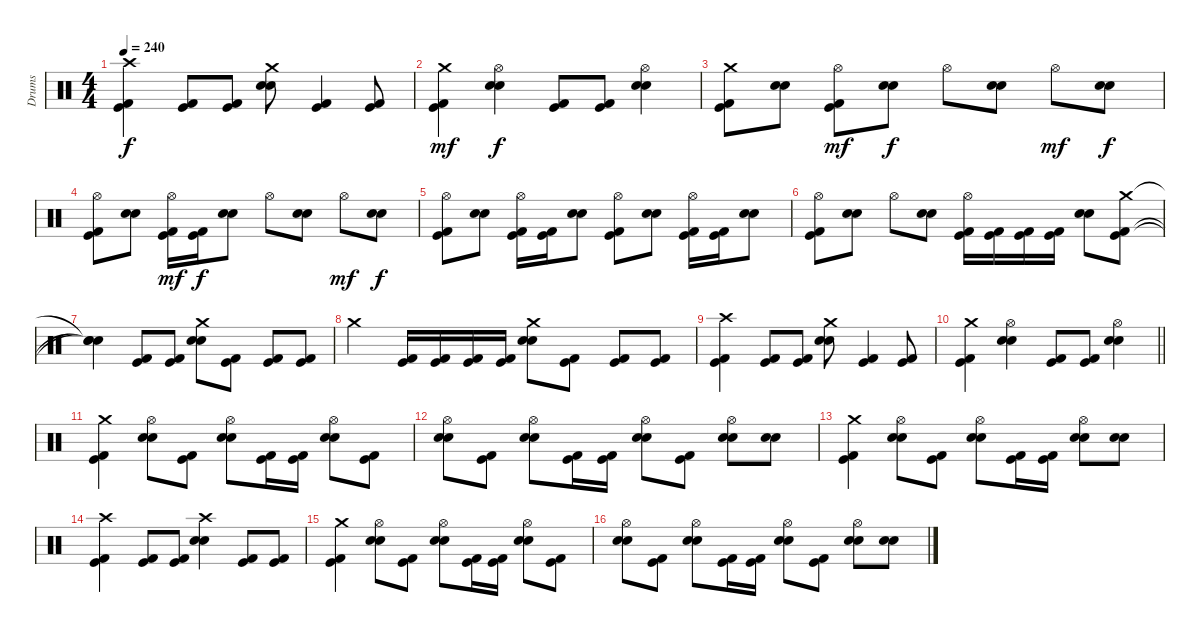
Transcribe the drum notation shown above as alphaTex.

\track ("Drums" "Drums") {instrument percussion bank 10}
\staff {score}
\articulation defaults
\ts (4 4)
\tempo 240
\clef neutral
\ks c
("Crash high (hit)" "Kick (hit) 2" "Kick (hit)").4{dy f} ("Kick (hit) 2" "Kick (hit)").8 ("Kick (hit) 2" "Kick (hit)").8 ("Crash medium (hit)" "Electric Snare (hit)" "Electric Snare (hit)").8 ("Kick (hit) 2" "Kick (hit)").4 ("Kick (hit) 2" "Kick (hit)").8 |
("Crash medium (hit)" "Kick (hit) 2" "Kick (hit)").4{dy mf} ("Hi-Hat (open)" "Electric Snare (hit)" "Electric Snare (hit)").4{dy f} ("Kick (hit) 2" "Kick (hit)").8 ("Kick (hit) 2" "Kick (hit)").8 ("Hi-Hat (open)" "Electric Snare (hit)" "Electric Snare (hit)").4 |
("Crash medium (hit)" "Kick (hit) 2" "Kick (hit)").8 ("Electric Snare (hit)" "Electric Snare (hit)").8 ("Hi-Hat (open)" "Kick (hit) 2" "Kick (hit)").8{dy mf} ("Electric Snare (hit)" "Electric Snare (hit)").8{dy f} "Hi-Hat (open)".8 ("Electric Snare (hit)" "Electric Snare (hit)").8 "Hi-Hat (open)".8{dy mf} ("Electric Snare (hit)" "Electric Snare (hit)").8{dy f} |
("Hi-Hat (open)" "Kick (hit) 2" "Kick (hit)").8 ("Electric Snare (hit)" "Electric Snare (hit)").8 ("Hi-Hat (open)" "Kick (hit) 2" "Kick (hit)").16{dy mf} ("Kick (hit) 2" "Kick (hit)").16{dy f} ("Electric Snare (hit)" "Electric Snare (hit)").8 "Hi-Hat (open)".8 ("Electric Snare (hit)" "Electric Snare (hit)").8 "Hi-Hat (open)".8{dy mf} ("Electric Snare (hit)" "Electric Snare (hit)").8{dy f} |
("Hi-Hat (open)" "Kick (hit) 2" "Kick (hit)").8 ("Electric Snare (hit)" "Electric Snare (hit)").8 ("Hi-Hat (open)" "Kick (hit) 2" "Kick (hit)").16 ("Kick (hit) 2" "Kick (hit)").16 ("Electric Snare (hit)" "Electric Snare (hit)").8 ("Hi-Hat (open)" "Kick (hit) 2" "Kick (hit)").8 ("Electric Snare (hit)" "Electric Snare (hit)").8 ("Hi-Hat (open)" "Kick (hit) 2" "Kick (hit)").16 ("Kick (hit) 2" "Kick (hit)").16 ("Electric Snare (hit)" "Electric Snare (hit)").8 |
("Hi-Hat (open)" "Kick (hit) 2" "Kick (hit)").8 ("Electric Snare (hit)" "Electric Snare (hit)").8 "Hi-Hat (open)".8 ("Electric Snare (hit)" "Electric Snare (hit)").8 ("Hi-Hat (open)" "Kick (hit) 2" "Kick (hit)").16 ("Kick (hit) 2" "Kick (hit)").16 ("Kick (hit) 2" "Kick (hit)").16 ("Kick (hit) 2" "Kick (hit)").16 ("Electric Snare (hit)" "Electric Snare (hit)").8 ("Crash medium (hit)" "Kick (hit) 2" "Kick (hit)").8 |
("Snare (hit)"{t} "Snare (hit)"{t} "Snare (hit)"{t}).4 ("Kick (hit) 2" "Kick (hit)").8 ("Kick (hit) 2" "Kick (hit)").8 ("Crash medium (hit)" "Electric Snare (hit)" "Electric Snare (hit)").8 ("Kick (hit) 2" "Kick (hit)").8 ("Kick (hit) 2" "Kick (hit)").8 ("Kick (hit) 2" "Kick (hit)").8 |
"Crash medium (hit)".4 ("Kick (hit) 2" "Kick (hit)").16 ("Kick (hit) 2" "Kick (hit)").16 ("Kick (hit) 2" "Kick (hit)").16 ("Kick (hit) 2" "Kick (hit)").16 ("Crash medium (hit)" "Electric Snare (hit)" "Electric Snare (hit)").8 ("Kick (hit) 2" "Kick (hit)").8 ("Kick (hit) 2" "Kick (hit)").8 ("Kick (hit) 2" "Kick (hit)").8 |
("Crash high (hit)" "Kick (hit) 2" "Kick (hit)").4 ("Kick (hit) 2" "Kick (hit)").8 ("Kick (hit) 2" "Kick (hit)").8 ("Crash medium (hit)" "Electric Snare (hit)" "Electric Snare (hit)").8 ("Kick (hit) 2" "Kick (hit)").4 ("Kick (hit) 2" "Kick (hit)").8 |
\barLineRight lightlight
("Crash medium (hit)" "Kick (hit) 2" "Kick (hit)").4 ("Hi-Hat (open)" "Electric Snare (hit)" "Electric Snare (hit)").4 ("Kick (hit) 2" "Kick (hit)").8 ("Kick (hit) 2" "Kick (hit)").8 ("Hi-Hat (open)" "Electric Snare (hit)" "Electric Snare (hit)").4 |
("Crash medium (hit)" "Kick (hit) 2" "Kick (hit)").4 ("Hi-Hat (open)" "Electric Snare (hit)" "Electric Snare (hit)").8 ("Kick (hit) 2" "Kick (hit)").8 ("Hi-Hat (open)" "Electric Snare (hit)" "Electric Snare (hit)").8 ("Kick (hit) 2" "Kick (hit)").16 ("Kick (hit) 2" "Kick (hit)").16 ("Hi-Hat (open)" "Electric Snare (hit)" "Electric Snare (hit)").8 ("Kick (hit) 2" "Kick (hit)").8 |
("Hi-Hat (open)" "Electric Snare (hit)" "Electric Snare (hit)").8 ("Kick (hit) 2" "Kick (hit)").8 ("Hi-Hat (open)" "Electric Snare (hit)" "Electric Snare (hit)").8 ("Kick (hit) 2" "Kick (hit)").16 ("Kick (hit) 2" "Kick (hit)").16 ("Hi-Hat (open)" "Electric Snare (hit)" "Electric Snare (hit)").8 ("Kick (hit) 2" "Kick (hit)").8 ("Hi-Hat (open)" "Electric Snare (hit)" "Electric Snare (hit)").8 ("Electric Snare (hit)" "Electric Snare (hit)").8 |
("Crash medium (hit)" "Kick (hit) 2" "Kick (hit)").4 ("Hi-Hat (open)" "Electric Snare (hit)" "Electric Snare (hit)").8 ("Kick (hit) 2" "Kick (hit)").8 ("Hi-Hat (open)" "Electric Snare (hit)" "Electric Snare (hit)").8 ("Kick (hit) 2" "Kick (hit)").16 ("Kick (hit) 2" "Kick (hit)").16 ("Hi-Hat (open)" "Electric Snare (hit)" "Electric Snare (hit)").8 ("Electric Snare (hit)" "Electric Snare (hit)").8 |
("Crash high (hit)" "Kick (hit) 2" "Kick (hit)").4 ("Kick (hit) 2" "Kick (hit)").8 ("Kick (hit) 2" "Kick (hit)").8 ("Crash high (hit)" "Electric Snare (hit)" "Electric Snare (hit)").4 ("Kick (hit) 2" "Kick (hit)").8 ("Kick (hit) 2" "Kick (hit)").8 |
("Crash medium (hit)" "Kick (hit) 2" "Kick (hit)").4 ("Hi-Hat (open)" "Electric Snare (hit)" "Electric Snare (hit)").8 ("Kick (hit) 2" "Kick (hit)").8 ("Hi-Hat (open)" "Electric Snare (hit)" "Electric Snare (hit)").8 ("Kick (hit) 2" "Kick (hit)").16 ("Kick (hit) 2" "Kick (hit)").16 ("Hi-Hat (open)" "Electric Snare (hit)" "Electric Snare (hit)").8 ("Kick (hit) 2" "Kick (hit)").8 |
("Hi-Hat (open)" "Electric Snare (hit)" "Electric Snare (hit)").8 ("Kick (hit) 2" "Kick (hit)").8 ("Hi-Hat (open)" "Electric Snare (hit)" "Electric Snare (hit)").8 ("Kick (hit) 2" "Kick (hit)").16 ("Kick (hit) 2" "Kick (hit)").16 ("Hi-Hat (open)" "Electric Snare (hit)" "Electric Snare (hit)").8 ("Kick (hit) 2" "Kick (hit)").8 ("Hi-Hat (open)" "Electric Snare (hit)" "Electric Snare (hit)").8 ("Electric Snare (hit)" "Electric Snare (hit)").8
